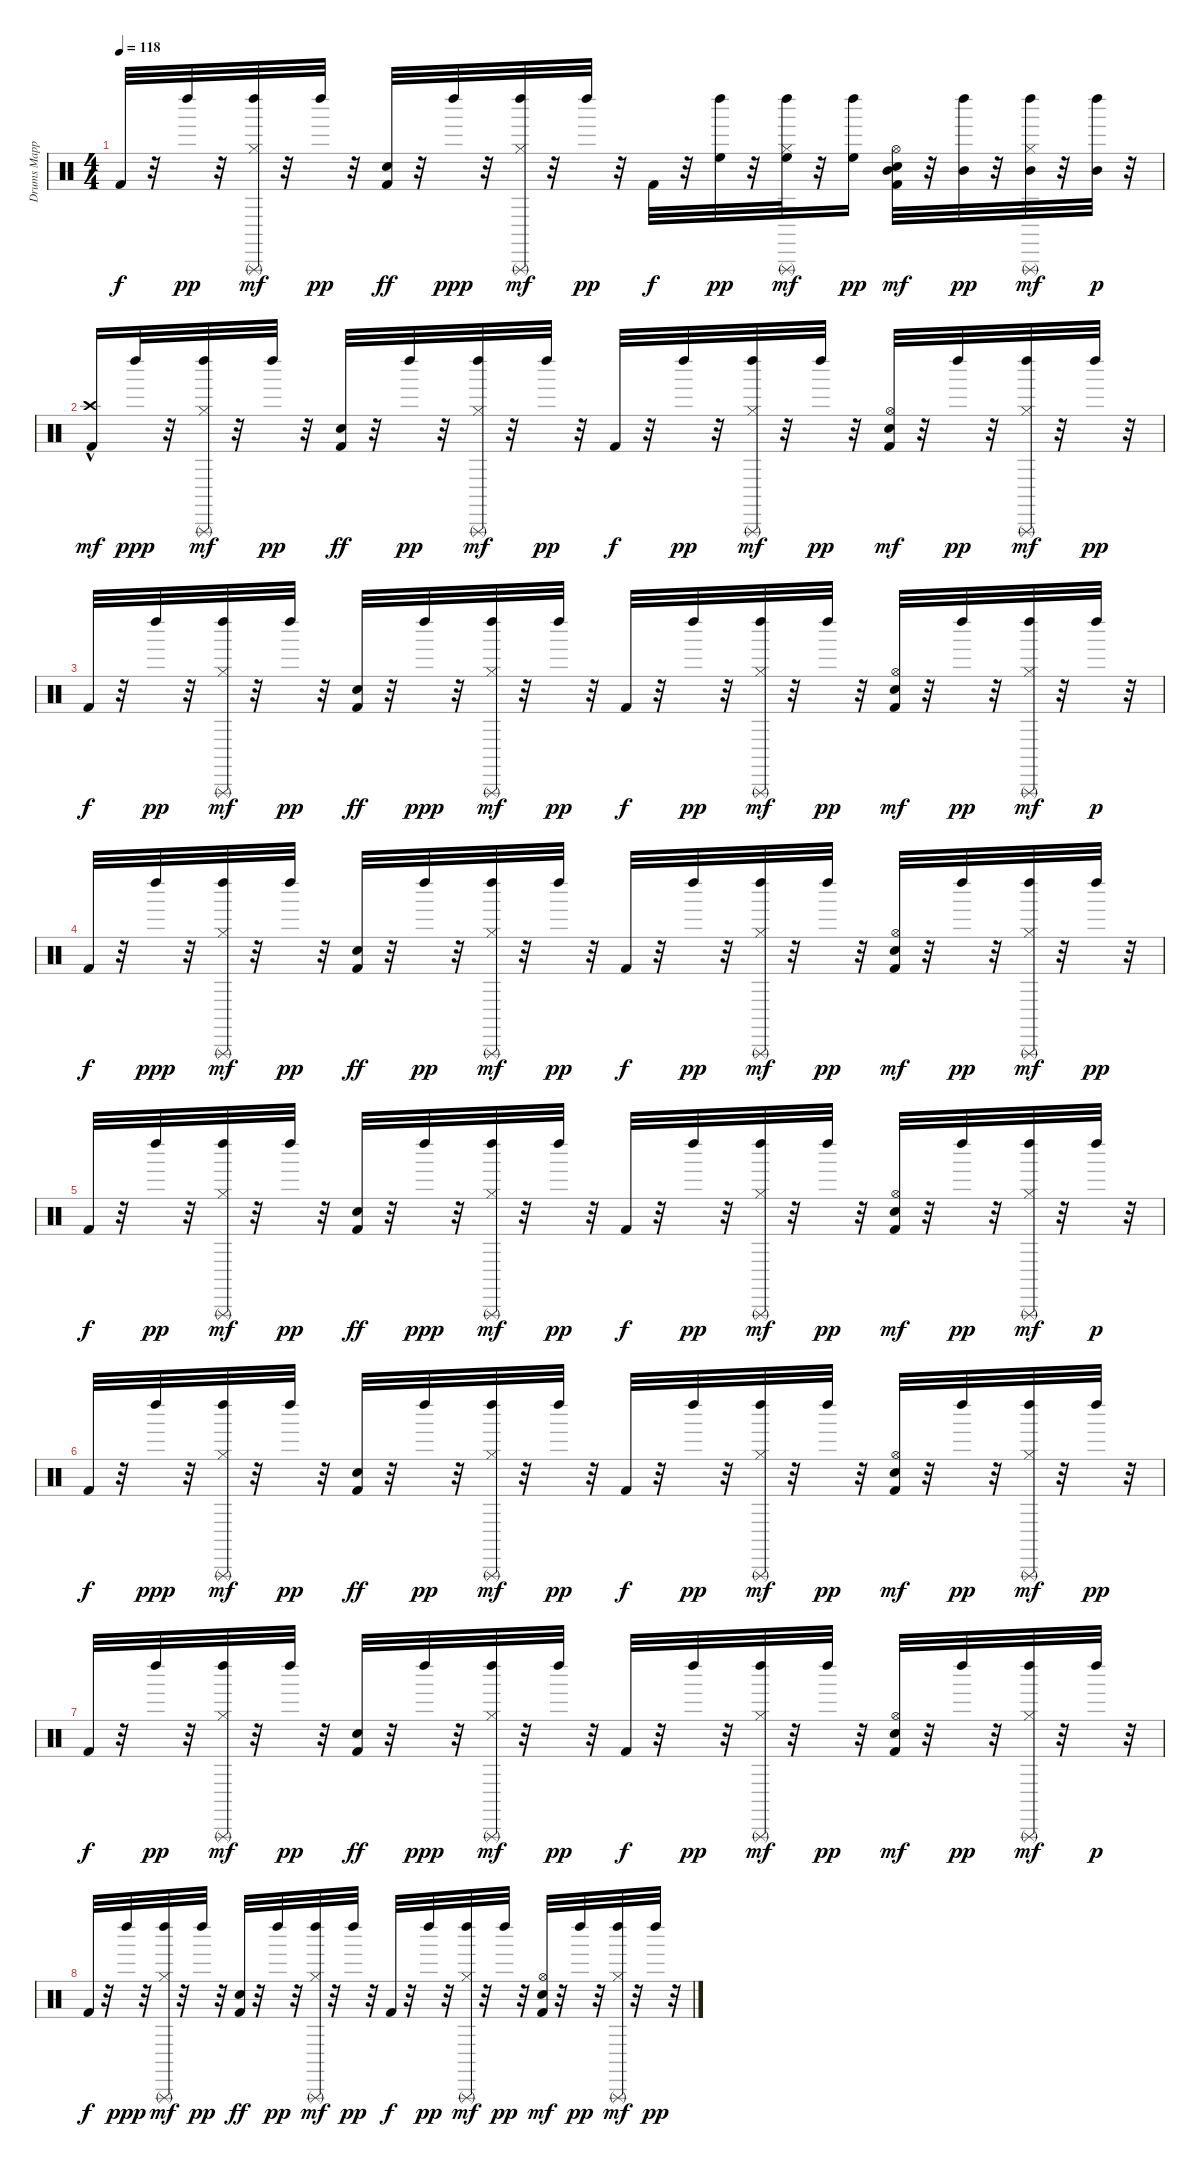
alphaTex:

\track ("Drums Mapped*merged" "Drums Mapp") {instrument percussion}
\staff {score}
\articulation defaults
\ts (4 4)
\tempo 118
\clef neutral
\ks c "Kick (hit) 2".32{dy f}
r.32 "Left Maraca (hit)".32{dy pp} r.32 ("Hi-Hat (closed)" "Left Maraca (hit)" "Triangle (rnute)").32{dy mf} r.32 "Left Maraca (hit)".32{dy pp} r.32 ("Kick (hit) 2" "Snare (hit) 2").32{dy ff} r.32 "Left Maraca (hit)".32{dy ppp} r.32 ("Hi-Hat (closed)" "Left Maraca (hit)" "Triangle (rnute)").32{dy mf} r.32 "Left Maraca (hit)".32{dy pp} r.32 "Kick (hit) 2".32{dy f} r.32 ("High Floor Tom (hit)" "Left Maraca (hit)").32{dy pp} r.32 ("Hi-Hat (closed)" "High Floor Tom (hit)" "Left Maraca (hit)" "Triangle (rnute)").32{dy mf} r.32 ("High Floor Tom (hit)" "Left Maraca (hit)").16{dy pp} ("Kick (hit) 2" "Snare (hit) 2" "Hi-Hat (open)" "Mid Tom (hit)").32{dy mf} r.32 ("Mid Tom (hit)" "Left Maraca (hit)").32{dy pp} r.32 ("Hi-Hat (closed)" "Mid Tom (hit)" "Left Maraca (hit)" "Triangle (rnute)").32{dy mf} r.32 ("Mid Tom (hit)" "Left Maraca (hit)").32{dy p} r.32 |
("Kick (hit) 2" "Crash high (hit)"{hac}).16{dy mf} "Left Maraca (hit)".32{dy ppp} r.32 ("Hi-Hat (closed)" "Left Maraca (hit)" "Triangle (rnute)").32{dy mf} r.32 "Left Maraca (hit)".32{dy pp} r.32 ("Kick (hit) 2" "Snare (hit) 2").32{dy ff} r.32 "Left Maraca (hit)".32{dy pp} r.32 ("Hi-Hat (closed)" "Left Maraca (hit)" "Triangle (rnute)").32{dy mf} r.32 "Left Maraca (hit)".32{dy pp} r.32 "Kick (hit) 2".32{dy f} r.32 "Left Maraca (hit)".32{dy pp} r.32 ("Hi-Hat (closed)" "Left Maraca (hit)" "Triangle (rnute)").32{dy mf} r.32 "Left Maraca (hit)".32{dy pp} r.32 ("Kick (hit) 2" "Snare (hit) 2" "Hi-Hat (open)").32{dy mf} r.32 "Left Maraca (hit)".32{dy pp} r.32 ("Hi-Hat (closed)" "Left Maraca (hit)" "Triangle (rnute)").32{dy mf} r.32 "Left Maraca (hit)".32{dy pp} r.32 |
"Kick (hit) 2".32{dy f} r.32 "Left Maraca (hit)".32{dy pp} r.32 ("Hi-Hat (closed)" "Left Maraca (hit)" "Triangle (rnute)").32{dy mf} r.32 "Left Maraca (hit)".32{dy pp} r.32 ("Kick (hit) 2" "Snare (hit) 2").32{dy ff} r.32 "Left Maraca (hit)".32{dy ppp} r.32 ("Hi-Hat (closed)" "Left Maraca (hit)" "Triangle (rnute)").32{dy mf} r.32 "Left Maraca (hit)".32{dy pp} r.32 "Kick (hit) 2".32{dy f} r.32 "Left Maraca (hit)".32{dy pp} r.32 ("Hi-Hat (closed)" "Left Maraca (hit)" "Triangle (rnute)").32{dy mf} r.32 "Left Maraca (hit)".32{dy pp} r.32 ("Kick (hit) 2" "Snare (hit) 2" "Hi-Hat (open)").32{dy mf} r.32 "Left Maraca (hit)".32{dy pp} r.32 ("Hi-Hat (closed)" "Left Maraca (hit)" "Triangle (rnute)").32{dy mf} r.32 "Left Maraca (hit)".32{dy p} r.32 |
"Kick (hit) 2".32{dy f} r.32 "Left Maraca (hit)".32{dy ppp} r.32 ("Hi-Hat (closed)" "Left Maraca (hit)" "Triangle (rnute)").32{dy mf} r.32 "Left Maraca (hit)".32{dy pp} r.32 ("Kick (hit) 2" "Snare (hit) 2").32{dy ff} r.32 "Left Maraca (hit)".32{dy pp} r.32 ("Hi-Hat (closed)" "Left Maraca (hit)" "Triangle (rnute)").32{dy mf} r.32 "Left Maraca (hit)".32{dy pp} r.32 "Kick (hit) 2".32{dy f} r.32 "Left Maraca (hit)".32{dy pp} r.32 ("Hi-Hat (closed)" "Left Maraca (hit)" "Triangle (rnute)").32{dy mf} r.32 "Left Maraca (hit)".32{dy pp} r.32 ("Kick (hit) 2" "Snare (hit) 2" "Hi-Hat (open)").32{dy mf} r.32 "Left Maraca (hit)".32{dy pp} r.32 ("Hi-Hat (closed)" "Left Maraca (hit)" "Triangle (rnute)").32{dy mf} r.32 "Left Maraca (hit)".32{dy pp} r.32 |
"Kick (hit) 2".32{dy f} r.32 "Left Maraca (hit)".32{dy pp} r.32 ("Hi-Hat (closed)" "Left Maraca (hit)" "Triangle (rnute)").32{dy mf} r.32 "Left Maraca (hit)".32{dy pp} r.32 ("Kick (hit) 2" "Snare (hit) 2").32{dy ff} r.32 "Left Maraca (hit)".32{dy ppp} r.32 ("Hi-Hat (closed)" "Left Maraca (hit)" "Triangle (rnute)").32{dy mf} r.32 "Left Maraca (hit)".32{dy pp} r.32 "Kick (hit) 2".32{dy f} r.32 "Left Maraca (hit)".32{dy pp} r.32 ("Hi-Hat (closed)" "Left Maraca (hit)" "Triangle (rnute)").32{dy mf} r.32 "Left Maraca (hit)".32{dy pp} r.32 ("Kick (hit) 2" "Snare (hit) 2" "Hi-Hat (open)").32{dy mf} r.32 "Left Maraca (hit)".32{dy pp} r.32 ("Hi-Hat (closed)" "Left Maraca (hit)" "Triangle (rnute)").32{dy mf} r.32 "Left Maraca (hit)".32{dy p} r.32 |
"Kick (hit) 2".32{dy f} r.32 "Left Maraca (hit)".32{dy ppp} r.32 ("Hi-Hat (closed)" "Left Maraca (hit)" "Triangle (rnute)").32{dy mf} r.32 "Left Maraca (hit)".32{dy pp} r.32 ("Kick (hit) 2" "Snare (hit) 2").32{dy ff} r.32 "Left Maraca (hit)".32{dy pp} r.32 ("Hi-Hat (closed)" "Left Maraca (hit)" "Triangle (rnute)").32{dy mf} r.32 "Left Maraca (hit)".32{dy pp} r.32 "Kick (hit) 2".32{dy f} r.32 "Left Maraca (hit)".32{dy pp} r.32 ("Hi-Hat (closed)" "Left Maraca (hit)" "Triangle (rnute)").32{dy mf} r.32 "Left Maraca (hit)".32{dy pp} r.32 ("Kick (hit) 2" "Snare (hit) 2" "Hi-Hat (open)").32{dy mf} r.32 "Left Maraca (hit)".32{dy pp} r.32 ("Hi-Hat (closed)" "Left Maraca (hit)" "Triangle (rnute)").32{dy mf} r.32 "Left Maraca (hit)".32{dy pp} r.32 |
"Kick (hit) 2".32{dy f} r.32 "Left Maraca (hit)".32{dy pp} r.32 ("Hi-Hat (closed)" "Left Maraca (hit)" "Triangle (rnute)").32{dy mf} r.32 "Left Maraca (hit)".32{dy pp} r.32 ("Kick (hit) 2" "Snare (hit) 2").32{dy ff} r.32 "Left Maraca (hit)".32{dy ppp} r.32 ("Hi-Hat (closed)" "Left Maraca (hit)" "Triangle (rnute)").32{dy mf} r.32 "Left Maraca (hit)".32{dy pp} r.32 "Kick (hit) 2".32{dy f} r.32 "Left Maraca (hit)".32{dy pp} r.32 ("Hi-Hat (closed)" "Left Maraca (hit)" "Triangle (rnute)").32{dy mf} r.32 "Left Maraca (hit)".32{dy pp} r.32 ("Kick (hit) 2" "Snare (hit) 2" "Hi-Hat (open)").32{dy mf} r.32 "Left Maraca (hit)".32{dy pp} r.32 ("Hi-Hat (closed)" "Left Maraca (hit)" "Triangle (rnute)").32{dy mf} r.32 "Left Maraca (hit)".32{dy p} r.32 |
"Kick (hit) 2".32{dy f} r.32 "Left Maraca (hit)".32{dy ppp} r.32 ("Hi-Hat (closed)" "Left Maraca (hit)" "Triangle (rnute)").32{dy mf} r.32 "Left Maraca (hit)".32{dy pp} r.32 ("Kick (hit) 2" "Snare (hit) 2").32{dy ff} r.32 "Left Maraca (hit)".32{dy pp} r.32 ("Hi-Hat (closed)" "Left Maraca (hit)" "Triangle (rnute)").32{dy mf} r.32 "Left Maraca (hit)".32{dy pp} r.32 "Kick (hit) 2".32{dy f} r.32 "Left Maraca (hit)".32{dy pp} r.32 ("Hi-Hat (closed)" "Left Maraca (hit)" "Triangle (rnute)").32{dy mf} r.32 "Left Maraca (hit)".32{dy pp} r.32 ("Kick (hit) 2" "Snare (hit) 2" "Hi-Hat (open)").32{dy mf} r.32 "Left Maraca (hit)".32{dy pp} r.32 ("Hi-Hat (closed)" "Left Maraca (hit)" "Triangle (rnute)").32{dy mf} r.32 "Left Maraca (hit)".32{dy pp} r.32
